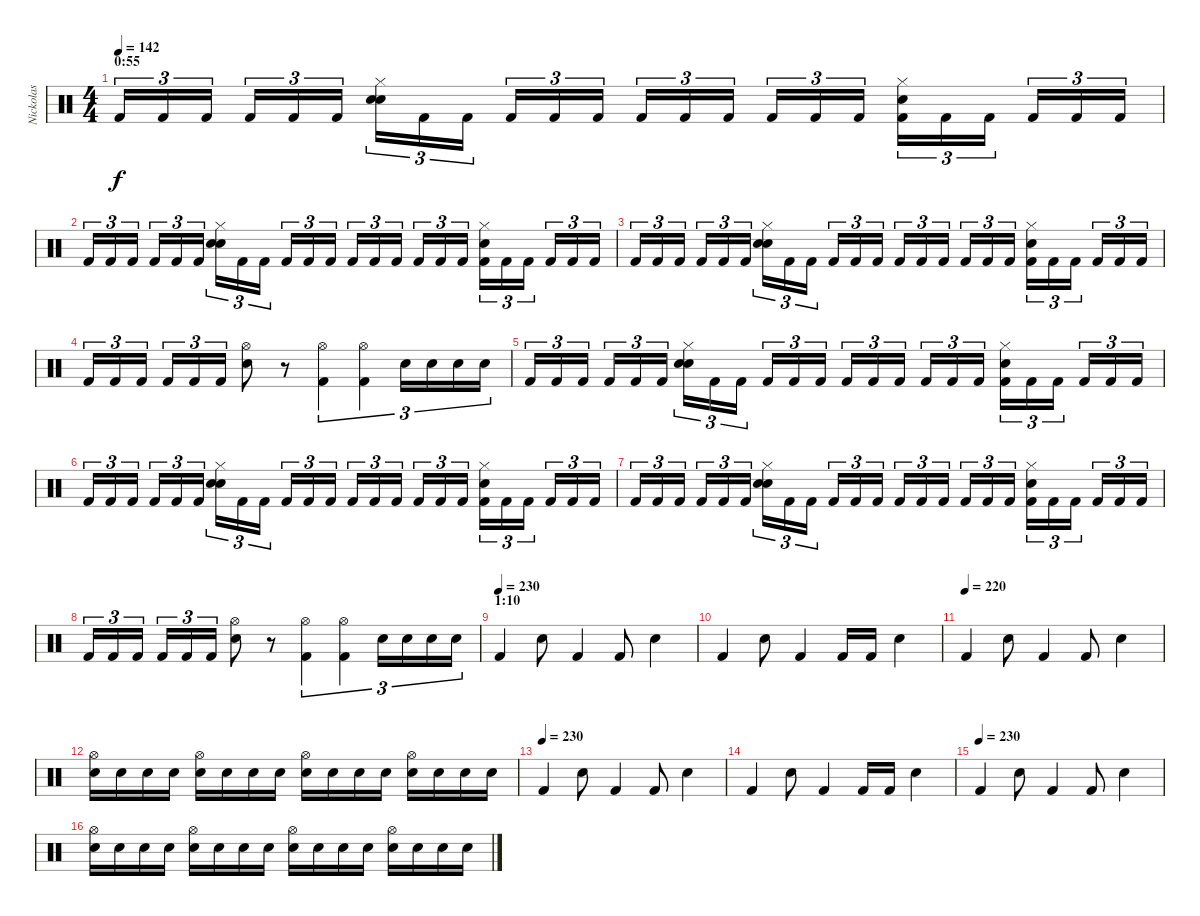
\track ("Nickolas " "Nickolas ") {instrument percussion}
\staff {score}
\articulation defaults
\ts (4 4)
\section ("" "0:55")
\tempo 142
\clef neutral
\ks c "Kick (hit) 2".16{tu (3 2) dy f} "Kick (hit) 2".16{tu (3 2)} "Kick (hit) 2".16{tu (3 2)} "Kick (hit) 2".16{tu (3 2)} "Kick (hit) 2".16{tu (3 2)} "Kick (hit) 2".16{tu (3 2)}
("Snare (hit) 2" "Snare (hit) 2" "Hi-Hat (closed)").16{tu (3 2)} "Kick (hit) 2".16{tu (3 2)} "Kick (hit) 2".16{tu (3 2)} "Kick (hit) 2".16{tu (3 2)} "Kick (hit) 2".16{tu (3 2)} "Kick (hit) 2".16{tu (3 2)} "Kick (hit) 2".16{tu (3 2)} "Kick (hit) 2".16{tu (3 2)} "Kick (hit) 2".16{tu (3 2)} "Kick (hit) 2".16{tu (3 2)} "Kick (hit) 2".16{tu (3 2)} "Kick (hit) 2".16{tu (3 2)} ("Kick (hit) 2" "Snare (hit) 2" "Hi-Hat (closed)").16{tu (3 2)} "Kick (hit) 2".16{tu (3 2)} "Kick (hit) 2".16{tu (3 2)} "Kick (hit) 2".16{tu (3 2)} "Kick (hit) 2".16{tu (3 2)} "Kick (hit) 2".16{tu (3 2)} |
"Kick (hit) 2".16{tu (3 2)} "Kick (hit) 2".16{tu (3 2)} "Kick (hit) 2".16{tu (3 2)} "Kick (hit) 2".16{tu (3 2)} "Kick (hit) 2".16{tu (3 2)} "Kick (hit) 2".16{tu (3 2)} ("Snare (hit) 2" "Snare (hit) 2" "Hi-Hat (closed)").16{tu (3 2)} "Kick (hit) 2".16{tu (3 2)} "Kick (hit) 2".16{tu (3 2)} "Kick (hit) 2".16{tu (3 2)} "Kick (hit) 2".16{tu (3 2)} "Kick (hit) 2".16{tu (3 2)} "Kick (hit) 2".16{tu (3 2)} "Kick (hit) 2".16{tu (3 2)} "Kick (hit) 2".16{tu (3 2)} "Kick (hit) 2".16{tu (3 2)} "Kick (hit) 2".16{tu (3 2)} "Kick (hit) 2".16{tu (3 2)} ("Kick (hit) 2" "Snare (hit) 2" "Hi-Hat (closed)").16{tu (3 2)} "Kick (hit) 2".16{tu (3 2)} "Kick (hit) 2".16{tu (3 2)} "Kick (hit) 2".16{tu (3 2)} "Kick (hit) 2".16{tu (3 2)} "Kick (hit) 2".16{tu (3 2)} |
"Kick (hit) 2".16{tu (3 2)} "Kick (hit) 2".16{tu (3 2)} "Kick (hit) 2".16{tu (3 2)} "Kick (hit) 2".16{tu (3 2)} "Kick (hit) 2".16{tu (3 2)} "Kick (hit) 2".16{tu (3 2)} ("Snare (hit) 2" "Snare (hit) 2" "Hi-Hat (closed)").16{tu (3 2)} "Kick (hit) 2".16{tu (3 2)} "Kick (hit) 2".16{tu (3 2)} "Kick (hit) 2".16{tu (3 2)} "Kick (hit) 2".16{tu (3 2)} "Kick (hit) 2".16{tu (3 2)} "Kick (hit) 2".16{tu (3 2)} "Kick (hit) 2".16{tu (3 2)} "Kick (hit) 2".16{tu (3 2)} "Kick (hit) 2".16{tu (3 2)} "Kick (hit) 2".16{tu (3 2)} "Kick (hit) 2".16{tu (3 2)} ("Kick (hit) 2" "Snare (hit) 2" "Hi-Hat (closed)").16{tu (3 2)} "Kick (hit) 2".16{tu (3 2)} "Kick (hit) 2".16{tu (3 2)} "Kick (hit) 2".16{tu (3 2)} "Kick (hit) 2".16{tu (3 2)} "Kick (hit) 2".16{tu (3 2)} |
"Kick (hit) 2".16{tu (3 2)} "Kick (hit) 2".16{tu (3 2)} "Kick (hit) 2".16{tu (3 2)} "Kick (hit) 2".16{tu (3 2)} "Kick (hit) 2".16{tu (3 2)} "Kick (hit) 2".16{tu (3 2)} ("Hi-Hat (open)" "Snare (hit) 2").8 r.8 ("Kick (hit) 2" "Hi-Hat (open)").4{tu (3 2)} ("Kick (hit) 2" "Hi-Hat (open)").4{tu (3 2)} "Snare (hit) 2".16{tu (3 2)} "Snare (hit) 2".16{tu (3 2)} "Snare (hit) 2".16{tu (3 2)} "Snare (hit) 2".16{tu (3 2)} |
"Kick (hit) 2".16{tu (3 2)} "Kick (hit) 2".16{tu (3 2)} "Kick (hit) 2".16{tu (3 2)} "Kick (hit) 2".16{tu (3 2)} "Kick (hit) 2".16{tu (3 2)} "Kick (hit) 2".16{tu (3 2)} ("Snare (hit) 2" "Snare (hit) 2" "Hi-Hat (closed)").16{tu (3 2)} "Kick (hit) 2".16{tu (3 2)} "Kick (hit) 2".16{tu (3 2)} "Kick (hit) 2".16{tu (3 2)} "Kick (hit) 2".16{tu (3 2)} "Kick (hit) 2".16{tu (3 2)} "Kick (hit) 2".16{tu (3 2)} "Kick (hit) 2".16{tu (3 2)} "Kick (hit) 2".16{tu (3 2)} "Kick (hit) 2".16{tu (3 2)} "Kick (hit) 2".16{tu (3 2)} "Kick (hit) 2".16{tu (3 2)} ("Kick (hit) 2" "Snare (hit) 2" "Hi-Hat (closed)").16{tu (3 2)} "Kick (hit) 2".16{tu (3 2)} "Kick (hit) 2".16{tu (3 2)} "Kick (hit) 2".16{tu (3 2)} "Kick (hit) 2".16{tu (3 2)} "Kick (hit) 2".16{tu (3 2)} |
"Kick (hit) 2".16{tu (3 2)} "Kick (hit) 2".16{tu (3 2)} "Kick (hit) 2".16{tu (3 2)} "Kick (hit) 2".16{tu (3 2)} "Kick (hit) 2".16{tu (3 2)} "Kick (hit) 2".16{tu (3 2)} ("Snare (hit) 2" "Snare (hit) 2" "Hi-Hat (closed)").16{tu (3 2)} "Kick (hit) 2".16{tu (3 2)} "Kick (hit) 2".16{tu (3 2)} "Kick (hit) 2".16{tu (3 2)} "Kick (hit) 2".16{tu (3 2)} "Kick (hit) 2".16{tu (3 2)} "Kick (hit) 2".16{tu (3 2)} "Kick (hit) 2".16{tu (3 2)} "Kick (hit) 2".16{tu (3 2)} "Kick (hit) 2".16{tu (3 2)} "Kick (hit) 2".16{tu (3 2)} "Kick (hit) 2".16{tu (3 2)} ("Kick (hit) 2" "Snare (hit) 2" "Hi-Hat (closed)").16{tu (3 2)} "Kick (hit) 2".16{tu (3 2)} "Kick (hit) 2".16{tu (3 2)} "Kick (hit) 2".16{tu (3 2)} "Kick (hit) 2".16{tu (3 2)} "Kick (hit) 2".16{tu (3 2)} |
"Kick (hit) 2".16{tu (3 2)} "Kick (hit) 2".16{tu (3 2)} "Kick (hit) 2".16{tu (3 2)} "Kick (hit) 2".16{tu (3 2)} "Kick (hit) 2".16{tu (3 2)} "Kick (hit) 2".16{tu (3 2)} ("Snare (hit) 2" "Snare (hit) 2" "Hi-Hat (closed)").16{tu (3 2)} "Kick (hit) 2".16{tu (3 2)} "Kick (hit) 2".16{tu (3 2)} "Kick (hit) 2".16{tu (3 2)} "Kick (hit) 2".16{tu (3 2)} "Kick (hit) 2".16{tu (3 2)} "Kick (hit) 2".16{tu (3 2)} "Kick (hit) 2".16{tu (3 2)} "Kick (hit) 2".16{tu (3 2)} "Kick (hit) 2".16{tu (3 2)} "Kick (hit) 2".16{tu (3 2)} "Kick (hit) 2".16{tu (3 2)} ("Kick (hit) 2" "Snare (hit) 2" "Hi-Hat (closed)").16{tu (3 2)} "Kick (hit) 2".16{tu (3 2)} "Kick (hit) 2".16{tu (3 2)} "Kick (hit) 2".16{tu (3 2)} "Kick (hit) 2".16{tu (3 2)} "Kick (hit) 2".16{tu (3 2)} |
"Kick (hit) 2".16{tu (3 2)} "Kick (hit) 2".16{tu (3 2)} "Kick (hit) 2".16{tu (3 2)} "Kick (hit) 2".16{tu (3 2)} "Kick (hit) 2".16{tu (3 2)} "Kick (hit) 2".16{tu (3 2)} ("Hi-Hat (open)" "Snare (hit) 2").8 r.8 ("Kick (hit) 2" "Hi-Hat (open)").4{tu (3 2)} ("Kick (hit) 2" "Hi-Hat (open)").4{tu (3 2)} "Snare (hit) 2".16{tu (3 2)} "Snare (hit) 2".16{tu (3 2)} "Snare (hit) 2".16{tu (3 2)} "Snare (hit) 2".16{tu (3 2)} |
\section ("" "1:10")
\tempo (230)
"Kick (hit) 2".4 "Snare (hit) 2".8 "Kick (hit) 2".4 "Kick (hit) 2".8 "Snare (hit) 2".4 |
"Kick (hit) 2".4 "Snare (hit) 2".8 "Kick (hit) 2".4 "Kick (hit) 2".16 "Kick (hit) 2".16 "Snare (hit) 2".4 |
\tempo (220)
"Kick (hit) 2".4 "Snare (hit) 2".8 "Kick (hit) 2".4 "Kick (hit) 2".8 "Snare (hit) 2".4 |
("Snare (hit) 2" "Hi-Hat (open)").16 "Snare (hit) 2".16 "Snare (hit) 2".16 "Snare (hit) 2".16 ("Snare (hit) 2" "Hi-Hat (open)").16 "Snare (hit) 2".16 "Snare (hit) 2".16 "Snare (hit) 2".16 ("Snare (hit) 2" "Hi-Hat (open)").16 "Snare (hit) 2".16 "Snare (hit) 2".16 "Snare (hit) 2".16 ("Snare (hit) 2" "Hi-Hat (open)").16 "Snare (hit) 2".16 "Snare (hit) 2".16 "Snare (hit) 2".16 |
\tempo (230)
"Kick (hit) 2".4 "Snare (hit) 2".8 "Kick (hit) 2".4 "Kick (hit) 2".8 "Snare (hit) 2".4 |
"Kick (hit) 2".4 "Snare (hit) 2".8 "Kick (hit) 2".4 "Kick (hit) 2".16 "Kick (hit) 2".16 "Snare (hit) 2".4 |
\tempo (230)
"Kick (hit) 2".4 "Snare (hit) 2".8 "Kick (hit) 2".4 "Kick (hit) 2".8 "Snare (hit) 2".4 |
("Snare (hit) 2" "Hi-Hat (open)").16 "Snare (hit) 2".16 "Snare (hit) 2".16 "Snare (hit) 2".16 ("Snare (hit) 2" "Hi-Hat (open)").16 "Snare (hit) 2".16 "Snare (hit) 2".16 "Snare (hit) 2".16 ("Snare (hit) 2" "Hi-Hat (open)").16 "Snare (hit) 2".16 "Snare (hit) 2".16 "Snare (hit) 2".16 ("Snare (hit) 2" "Hi-Hat (open)").16 "Snare (hit) 2".16 "Snare (hit) 2".16 "Snare (hit) 2".16
